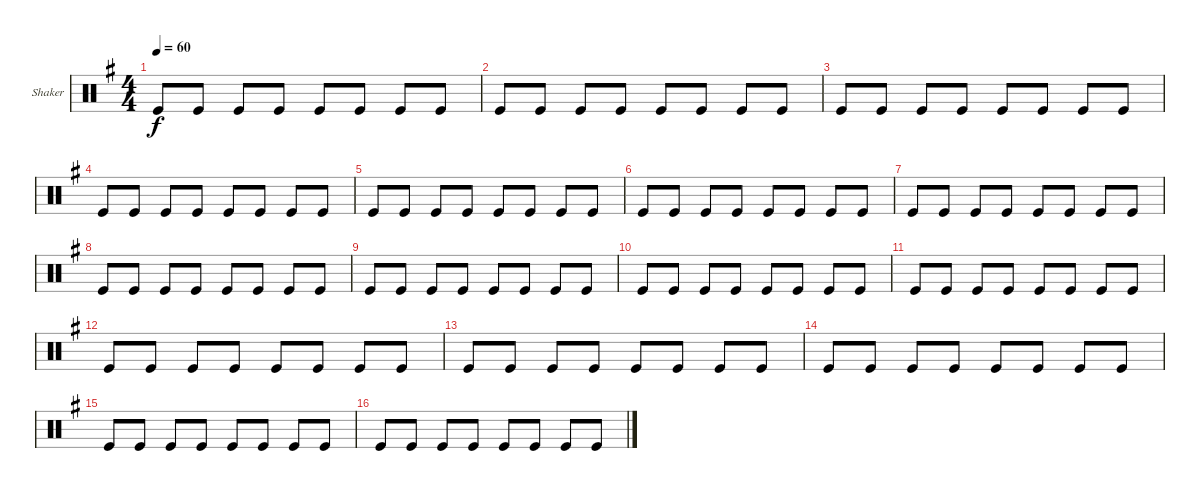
\defaultSystemsLayout 4
\bracketExtendMode groupsimilarinstruments
\firstSystemTrackNameOrientation horizontal
\otherSystemsTrackNameOrientation horizontal
\track ("Shaker" "Shaker") {instrument percussion}
\staff {score}
\articulation defaults
\ts (4 4)
\tempo 60
\clef neutral
\scale
0.333333
\ks g "Kick (hit)".8{dy f} "Kick (hit)".8 "Kick (hit)".8 "Kick (hit)".8 "Kick (hit)".8 "Kick (hit)".8 "Kick (hit)".8 "Kick (hit)".8
|
\scale
0.333333 "Kick (hit)".8 "Kick (hit)".8 "Kick (hit)".8 "Kick (hit)".8 "Kick (hit)".8 "Kick (hit)".8 "Kick (hit)".8 "Kick (hit)".8 |
\scale
0.333333 "Kick (hit)".8 "Kick (hit)".8 "Kick (hit)".8 "Kick (hit)".8 "Kick (hit)".8 "Kick (hit)".8 "Kick (hit)".8 "Kick (hit)".8 |
\scale
0.333333 "Kick (hit)".8 "Kick (hit)".8 "Kick (hit)".8 "Kick (hit)".8 "Kick (hit)".8 "Kick (hit)".8 "Kick (hit)".8 "Kick (hit)".8 |
\scale
0.333333 "Kick (hit)".8 "Kick (hit)".8 "Kick (hit)".8 "Kick (hit)".8 "Kick (hit)".8 "Kick (hit)".8 "Kick (hit)".8 "Kick (hit)".8 |
\scale
0.333333 "Kick (hit)".8 "Kick (hit)".8 "Kick (hit)".8 "Kick (hit)".8 "Kick (hit)".8 "Kick (hit)".8 "Kick (hit)".8 "Kick (hit)".8 |
\scale
0.333333 "Kick (hit)".8 "Kick (hit)".8 "Kick (hit)".8 "Kick (hit)".8 "Kick (hit)".8 "Kick (hit)".8 "Kick (hit)".8 "Kick (hit)".8 |
\scale
0.333333 "Kick (hit)".8 "Kick (hit)".8 "Kick (hit)".8 "Kick (hit)".8 "Kick (hit)".8 "Kick (hit)".8 "Kick (hit)".8 "Kick (hit)".8 |
\scale
0.333333 "Kick (hit)".8 "Kick (hit)".8 "Kick (hit)".8 "Kick (hit)".8 "Kick (hit)".8 "Kick (hit)".8 "Kick (hit)".8 "Kick (hit)".8 |
\scale
0.333333 "Kick (hit)".8 "Kick (hit)".8 "Kick (hit)".8 "Kick (hit)".8 "Kick (hit)".8 "Kick (hit)".8 "Kick (hit)".8 "Kick (hit)".8 |
\scale
0.333333 "Kick (hit)".8 "Kick (hit)".8 "Kick (hit)".8 "Kick (hit)".8 "Kick (hit)".8 "Kick (hit)".8 "Kick (hit)".8 "Kick (hit)".8 |
\scale
0.333333 "Kick (hit)".8 "Kick (hit)".8 "Kick (hit)".8 "Kick (hit)".8 "Kick (hit)".8 "Kick (hit)".8 "Kick (hit)".8 "Kick (hit)".8 |
\scale
0.333333 "Kick (hit)".8 "Kick (hit)".8 "Kick (hit)".8 "Kick (hit)".8 "Kick (hit)".8 "Kick (hit)".8 "Kick (hit)".8 "Kick (hit)".8 |
\scale
0.333333 "Kick (hit)".8 "Kick (hit)".8 "Kick (hit)".8 "Kick (hit)".8 "Kick (hit)".8 "Kick (hit)".8 "Kick (hit)".8 "Kick (hit)".8 |
\scale
0.333333 "Kick (hit)".8 "Kick (hit)".8 "Kick (hit)".8 "Kick (hit)".8 "Kick (hit)".8 "Kick (hit)".8 "Kick (hit)".8 "Kick (hit)".8 |
\scale
0.333333 "Kick (hit)".8 "Kick (hit)".8 "Kick (hit)".8 "Kick (hit)".8 "Kick (hit)".8 "Kick (hit)".8 "Kick (hit)".8 "Kick (hit)".8
